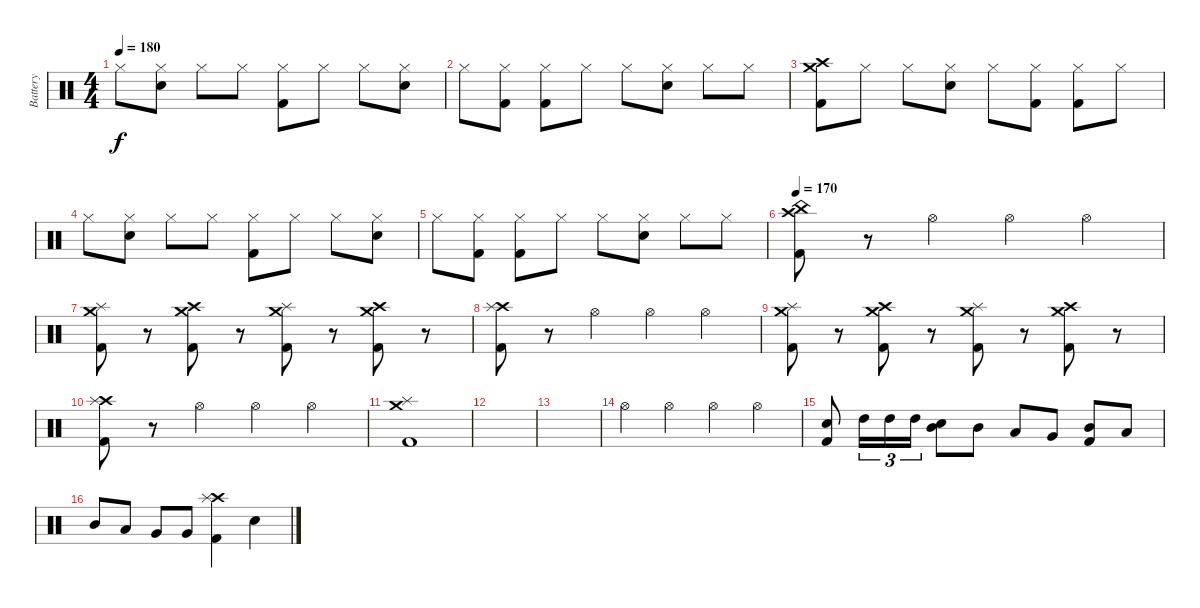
\track ("Battery" "Battery") {instrument percussion}
\staff {score}
\articulation defaults
\ts (4 4)
\tempo 180
\clef neutral
\ks c "Hi-Hat (closed)".8{dy f}
("Hi-Hat (closed)" "Snare (hit) 2").8 "Hi-Hat (closed)".8 "Hi-Hat (closed)".8 ("Hi-Hat (closed)" "Kick (hit) 2").8 "Hi-Hat (closed)".8 "Hi-Hat (closed)".8 ("Hi-Hat (closed)" "Snare (hit) 2").8 |
"Hi-Hat (closed)".8 ("Hi-Hat (closed)" "Kick (hit) 2").8 ("Hi-Hat (closed)" "Kick (hit) 2").8 "Hi-Hat (closed)".8 "Hi-Hat (closed)".8 ("Hi-Hat (closed)" "Snare (hit) 2").8 "Hi-Hat (closed)".8 "Hi-Hat (closed)".8 |
("Crash medium (hit)" "Crash high (hit)" "Kick (hit) 2").8 "Hi-Hat (closed)".8 "Hi-Hat (closed)".8 ("Hi-Hat (closed)" "Snare (hit) 2").8 "Hi-Hat (closed)".8 ("Hi-Hat (closed)" "Kick (hit) 2").8 ("Hi-Hat (closed)" "Kick (hit) 2").8 "Hi-Hat (closed)".8 |
"Hi-Hat (closed)".8 ("Hi-Hat (closed)" "Snare (hit) 2").8 "Hi-Hat (closed)".8 "Hi-Hat (closed)".8 ("Hi-Hat (closed)" "Kick (hit) 2").8 "Hi-Hat (closed)".8 "Hi-Hat (closed)".8 ("Hi-Hat (closed)" "Snare (hit) 2").8 |
"Hi-Hat (closed)".8 ("Hi-Hat (closed)" "Kick (hit) 2").8 ("Hi-Hat (closed)" "Kick (hit) 2").8 "Hi-Hat (closed)".8 "Hi-Hat (closed)".8 ("Hi-Hat (closed)" "Snare (hit) 2").8 "Hi-Hat (closed)".8 "Hi-Hat (closed)".8 |
\tempo 170
("Crash high (hit)" "China (hit)" "Kick (hit) 2").8 r.8 "Hi-Hat (open)".4 "Hi-Hat (open)".4 "Hi-Hat (open)".4 |
("Crash medium (hit)" "Splash (hit)" "Kick (hit) 2").8 r.8 ("Crash high (hit)" "Crash medium (hit)" "Kick (hit) 2").8 r.8 ("Crash medium (hit)" "Splash (hit)" "Kick (hit) 2").8 r.8 ("Crash high (hit)" "Crash medium (hit)" "Kick (hit) 2").8 r.8 |
("Crash high (hit)" "Splash (hit)" "Kick (hit) 2").8 r.8 "Hi-Hat (open)".4 "Hi-Hat (open)".4 "Hi-Hat (open)".4 |
("Crash medium (hit)" "Splash (hit)" "Kick (hit) 2").8 r.8 ("Crash high (hit)" "Crash medium (hit)" "Kick (hit) 2").8 r.8 ("Crash medium (hit)" "Splash (hit)" "Kick (hit) 2").8 r.8 ("Crash high (hit)" "Crash medium (hit)" "Kick (hit) 2").8 r.8 |
("Crash high (hit)" "Splash (hit)" "Kick (hit) 2").8 r.8 "Hi-Hat (open)".4 "Hi-Hat (open)".4 "Hi-Hat (open)".4 |
("Crash medium (hit)" "Splash (hit)" "Kick (hit) 2").1 |
|
|
"Hi-Hat (open)".4 "Hi-Hat (open)".4 "Hi-Hat (open)".4 "Hi-Hat (open)".4 |
("Snare (hit) 2" "Kick (hit) 2").8 "High Tom (hit)".16{tu (3 2)} "High Tom (hit)".16{tu (3 2)} "High Tom (hit)".16{tu (3 2)} ("Mid Tom (hit)" "Snare (hit) 2").8 "Mid Tom (hit)".8 "Low Tom (hit)".8 "Very Low Tom (hit)".8 ("Mid Tom (hit)" "Kick (hit) 2").8 "Low Tom (hit)".8 |
"Mid Tom (hit)".8 "Low Tom (hit)".8 "Very Low Tom (hit)".8 "Very Low Tom (hit)".8 ("Crash high (hit)" "Splash (hit)" "Kick (hit) 2").4 "Snare (hit) 2".4
